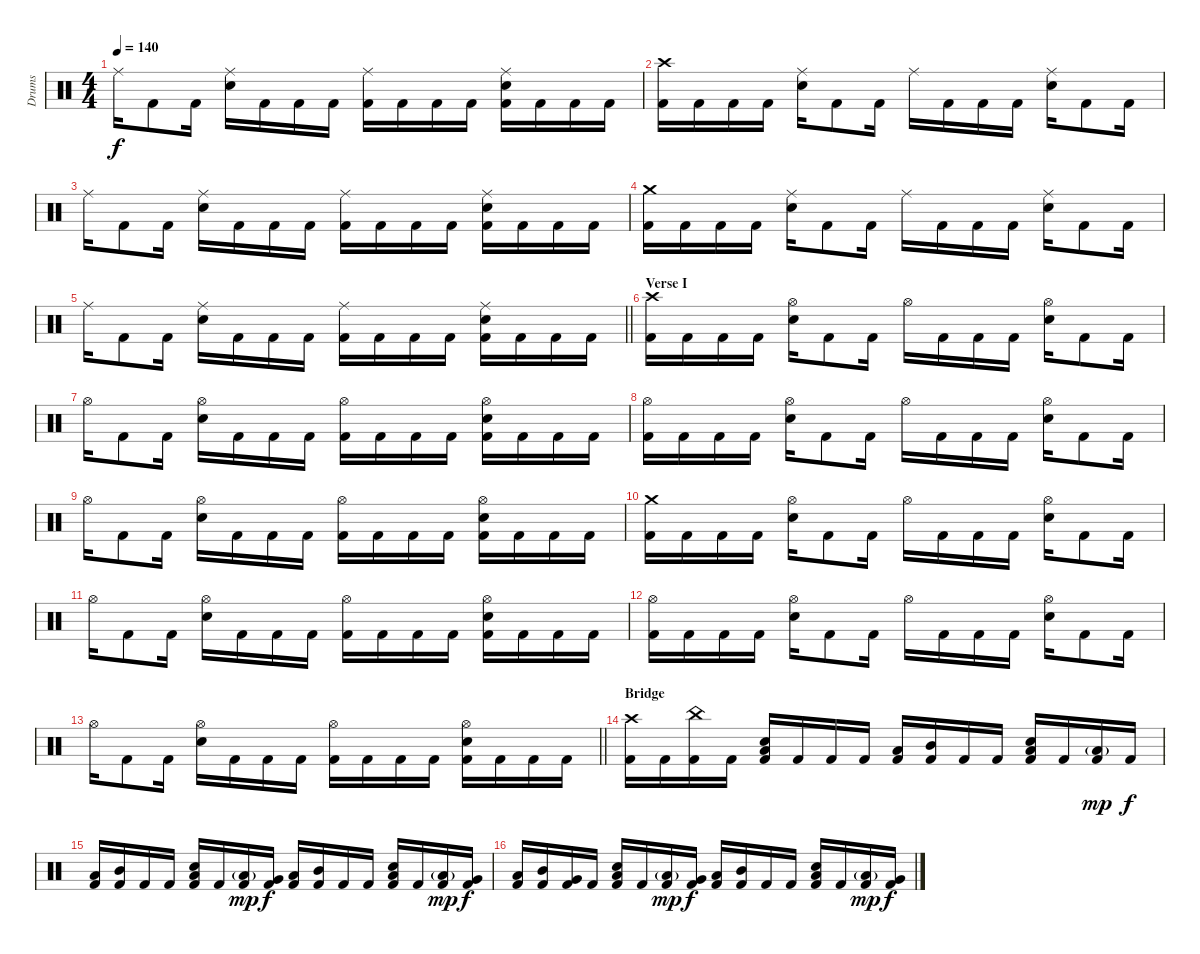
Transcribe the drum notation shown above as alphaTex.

\track ("Drums" "Drums") {instrument percussion}
\staff {score}
\articulation defaults
\ts (4 4)
\tempo 140
\clef neutral
\ks c "Ride (middle)".16{dy f} "Kick (hit) 2".8 "Kick (hit) 2".16
("Ride (middle)" "Electric Snare (hit)").16 "Kick (hit) 2".16 "Kick (hit) 2".16 "Kick (hit) 2".16 ("Ride (middle)" "Kick (hit) 2").16 "Kick (hit) 2".16 "Kick (hit) 2".16 "Kick (hit) 2".16 ("Ride (middle)" "Electric Snare (hit)" "Kick (hit) 2").16 "Kick (hit) 2".16 "Kick (hit) 2".16 "Kick (hit) 2".16 |
("Crash high (hit)" "Kick (hit) 2").16 "Kick (hit) 2".16 "Kick (hit) 2".16 "Kick (hit) 2".16 ("Ride (middle)" "Electric Snare (hit)").16 "Kick (hit) 2".8 "Kick (hit) 2".16 "Ride (middle)".16 "Kick (hit) 2".16 "Kick (hit) 2".16 "Kick (hit) 2".16 ("Ride (middle)" "Electric Snare (hit)").16 "Kick (hit) 2".8 "Kick (hit) 2".16 |
"Ride (middle)".16 "Kick (hit) 2".8 "Kick (hit) 2".16 ("Ride (middle)" "Electric Snare (hit)").16 "Kick (hit) 2".16 "Kick (hit) 2".16 "Kick (hit) 2".16 ("Ride (middle)" "Kick (hit) 2").16 "Kick (hit) 2".16 "Kick (hit) 2".16 "Kick (hit) 2".16 ("Ride (middle)" "Electric Snare (hit)" "Kick (hit) 2").16 "Kick (hit) 2".16 "Kick (hit) 2".16 "Kick (hit) 2".16 |
("Crash medium (hit)" "Kick (hit) 2").16 "Kick (hit) 2".16 "Kick (hit) 2".16 "Kick (hit) 2".16 ("Ride (middle)" "Electric Snare (hit)").16 "Kick (hit) 2".8 "Kick (hit) 2".16 "Ride (middle)".16 "Kick (hit) 2".16 "Kick (hit) 2".16 "Kick (hit) 2".16 ("Ride (middle)" "Electric Snare (hit)").16 "Kick (hit) 2".8 "Kick (hit) 2".16 |
\barLineRight lightlight "Ride (middle)".16 "Kick (hit) 2".8 "Kick (hit) 2".16
("Ride (middle)" "Electric Snare (hit)").16 "Kick (hit) 2".16 "Kick (hit) 2".16 "Kick (hit) 2".16 ("Ride (middle)" "Kick (hit) 2").16 "Kick (hit) 2".16 "Kick (hit) 2".16 "Kick (hit) 2".16 ("Ride (middle)" "Electric Snare (hit)" "Kick (hit) 2").16 "Kick (hit) 2".16 "Kick (hit) 2".16 "Kick (hit) 2".16 |
\section ("" "Verse I")
("Crash high (hit)" "Kick (hit) 2").16 "Kick (hit) 2".16 "Kick (hit) 2".16 "Kick (hit) 2".16 ("Hi-Hat (open)" "Electric Snare (hit)").16 "Kick (hit) 2".8 "Kick (hit) 2".16 "Hi-Hat (open)".16 "Kick (hit) 2".16 "Kick (hit) 2".16 "Kick (hit) 2".16 ("Hi-Hat (open)" "Electric Snare (hit)").16 "Kick (hit) 2".8 "Kick (hit) 2".16 |
"Hi-Hat (open)".16 "Kick (hit) 2".8 "Kick (hit) 2".16 ("Hi-Hat (open)" "Electric Snare (hit)").16 "Kick (hit) 2".16 "Kick (hit) 2".16 "Kick (hit) 2".16 ("Hi-Hat (open)" "Kick (hit) 2").16 "Kick (hit) 2".16 "Kick (hit) 2".16 "Kick (hit) 2".16 ("Hi-Hat (open)" "Electric Snare (hit)" "Kick (hit) 2").16 "Kick (hit) 2".16 "Kick (hit) 2".16 "Kick (hit) 2".16 |
("Hi-Hat (open)" "Kick (hit) 2").16 "Kick (hit) 2".16 "Kick (hit) 2".16 "Kick (hit) 2".16 ("Hi-Hat (open)" "Electric Snare (hit)").16 "Kick (hit) 2".8 "Kick (hit) 2".16 "Hi-Hat (open)".16 "Kick (hit) 2".16 "Kick (hit) 2".16 "Kick (hit) 2".16 ("Hi-Hat (open)" "Electric Snare (hit)").16 "Kick (hit) 2".8 "Kick (hit) 2".16 |
"Hi-Hat (open)".16 "Kick (hit) 2".8 "Kick (hit) 2".16 ("Hi-Hat (open)" "Electric Snare (hit)").16 "Kick (hit) 2".16 "Kick (hit) 2".16 "Kick (hit) 2".16 ("Hi-Hat (open)" "Kick (hit) 2").16 "Kick (hit) 2".16 "Kick (hit) 2".16 "Kick (hit) 2".16 ("Hi-Hat (open)" "Electric Snare (hit)" "Kick (hit) 2").16 "Kick (hit) 2".16 "Kick (hit) 2".16 "Kick (hit) 2".16 |
("Crash medium (hit)" "Kick (hit) 2").16 "Kick (hit) 2".16 "Kick (hit) 2".16 "Kick (hit) 2".16 ("Hi-Hat (open)" "Electric Snare (hit)").16 "Kick (hit) 2".8 "Kick (hit) 2".16 "Hi-Hat (open)".16 "Kick (hit) 2".16 "Kick (hit) 2".16 "Kick (hit) 2".16 ("Hi-Hat (open)" "Electric Snare (hit)").16 "Kick (hit) 2".8 "Kick (hit) 2".16 |
"Hi-Hat (open)".16 "Kick (hit) 2".8 "Kick (hit) 2".16 ("Hi-Hat (open)" "Electric Snare (hit)").16 "Kick (hit) 2".16 "Kick (hit) 2".16 "Kick (hit) 2".16 ("Hi-Hat (open)" "Kick (hit) 2").16 "Kick (hit) 2".16 "Kick (hit) 2".16 "Kick (hit) 2".16 ("Hi-Hat (open)" "Electric Snare (hit)" "Kick (hit) 2").16 "Kick (hit) 2".16 "Kick (hit) 2".16 "Kick (hit) 2".16 |
("Hi-Hat (open)" "Kick (hit) 2").16 "Kick (hit) 2".16 "Kick (hit) 2".16 "Kick (hit) 2".16 ("Hi-Hat (open)" "Electric Snare (hit)").16 "Kick (hit) 2".8 "Kick (hit) 2".16 "Hi-Hat (open)".16 "Kick (hit) 2".16 "Kick (hit) 2".16 "Kick (hit) 2".16 ("Hi-Hat (open)" "Electric Snare (hit)").16 "Kick (hit) 2".8 "Kick (hit) 2".16 |
\barLineRight lightlight "Hi-Hat (open)".16 "Kick (hit) 2".8 "Kick (hit) 2".16
("Hi-Hat (open)" "Electric Snare (hit)").16 "Kick (hit) 2".16 "Kick (hit) 2".16 "Kick (hit) 2".16 ("Hi-Hat (open)" "Kick (hit) 2").16 "Kick (hit) 2".16 "Kick (hit) 2".16 "Kick (hit) 2".16 ("Hi-Hat (open)" "Electric Snare (hit)" "Kick (hit) 2").16 "Kick (hit) 2".16 "Kick (hit) 2".16 "Kick (hit) 2".16 |
\section ("" "Bridge")
("Crash high (hit)" "Kick (hit) 2").16 "Kick (hit) 2".16 ("China (hit)" "Kick (hit) 2").16 "Kick (hit) 2".16 ("Low Floor Tom (hit)" "Electric Snare (hit)" "Kick (hit) 2").16 "Kick (hit) 2".16 "Kick (hit) 2".16 "Kick (hit) 2".16 ("Low Tom (hit)" "Kick (hit) 2").16 ("Mid Tom (hit)" "Kick (hit) 2").16 "Kick (hit) 2".16 "Kick (hit) 2".16 ("Low Floor Tom (hit)" "Electric Snare (hit)" "Kick (hit) 2").16 "Kick (hit) 2".16 ("Low Floor Tom (hit)"{g} "Kick (hit) 2").16{dy mp} "Kick (hit) 2".16{dy f} |
("Low Tom (hit)" "Kick (hit) 2").16 ("Mid Tom (hit)" "Kick (hit) 2").16 "Kick (hit) 2".16 "Kick (hit) 2".16 ("Low Floor Tom (hit)" "Electric Snare (hit)" "Kick (hit) 2").16 "Kick (hit) 2".16 ("Low Floor Tom (hit)"{g} "Kick (hit) 2").16{dy mp} ("Very Low Tom (hit)" "Kick (hit) 2").16{dy f} ("Low Tom (hit)" "Kick (hit) 2").16 ("Mid Tom (hit)" "Kick (hit) 2").16 "Kick (hit) 2".16 "Kick (hit) 2".16 ("Low Floor Tom (hit)" "Electric Snare (hit)" "Kick (hit) 2").16 "Kick (hit) 2".16 ("Low Floor Tom (hit)"{g} "Kick (hit) 2").16{dy mp} ("Very Low Tom (hit)" "Kick (hit) 2").16{dy f} |
("Low Tom (hit)" "Kick (hit) 2").16 ("Mid Tom (hit)" "Kick (hit) 2").16 ("Very Low Tom (hit)" "Kick (hit) 2").16 "Kick (hit) 2".16 ("Low Floor Tom (hit)" "Electric Snare (hit)" "Kick (hit) 2").16 "Kick (hit) 2".16 ("Low Floor Tom (hit)"{g} "Kick (hit) 2").16{dy mp} ("Very Low Tom (hit)" "Kick (hit) 2").16{dy f} ("Low Tom (hit)" "Kick (hit) 2").16 ("Mid Tom (hit)" "Kick (hit) 2").16 "Kick (hit) 2".16 "Kick (hit) 2".16 ("Low Floor Tom (hit)" "Electric Snare (hit)" "Kick (hit) 2").16 "Kick (hit) 2".16 ("Low Floor Tom (hit)"{g} "Kick (hit) 2").16{dy mp} ("Very Low Tom (hit)" "Kick (hit) 2").16{dy f}
